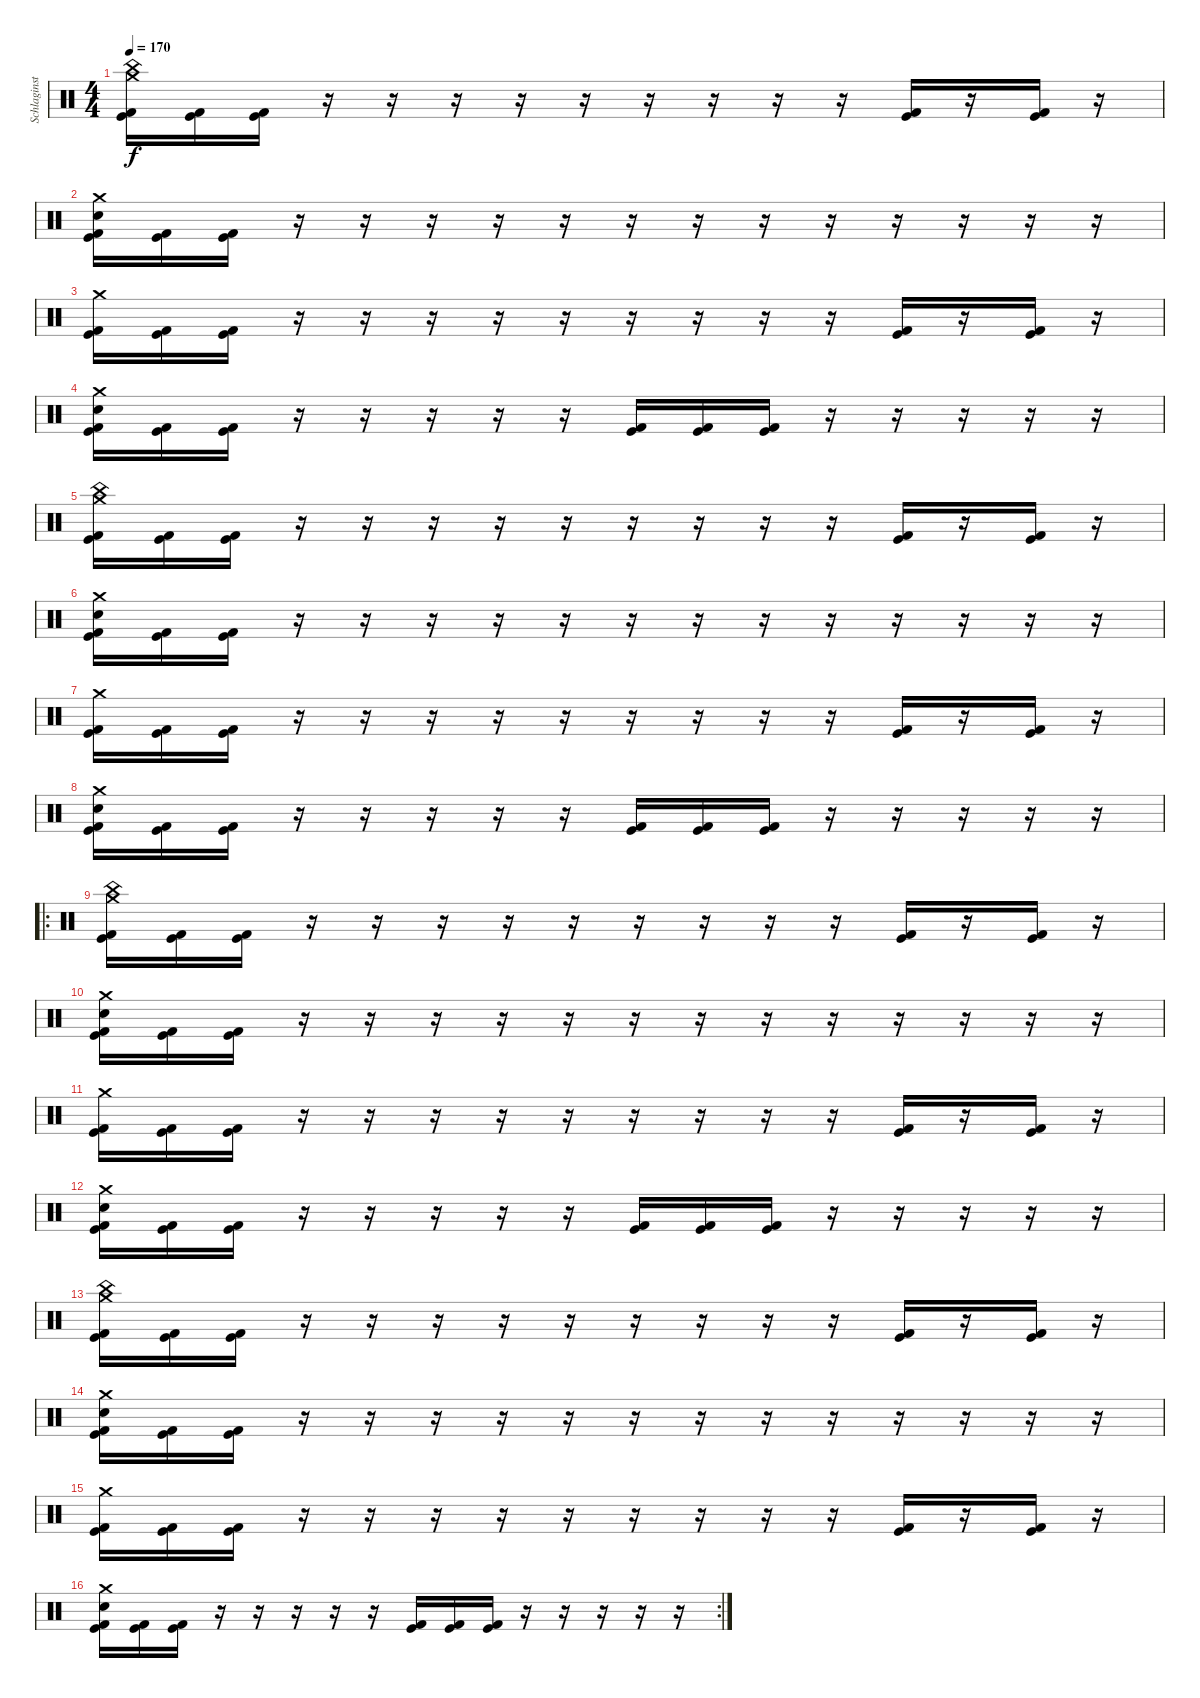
\track ("Schlaginstrumente - Auswahl" "Schlaginst") {instrument percussion}
\staff {score}
\articulation defaults
\ts (4 4)
\tempo 170
\clef neutral
\ks c
("Crash medium (hit)" "China (hit)" "Kick (hit)" "Kick (hit) 2").16{dy f} ("Kick (hit)" "Kick (hit) 2").16 ("Kick (hit)" "Kick (hit) 2").16 r.16 r.16 r.16 r.16 r.16 r.16 r.16 r.16 r.16 ("Kick (hit)" "Kick (hit) 2").16 r.16 ("Kick (hit)" "Kick (hit) 2").16 r.16 |
("Crash medium (hit)" "Electric Snare (hit)" "Kick (hit)" "Kick (hit) 2").16 ("Kick (hit)" "Kick (hit) 2").16 ("Kick (hit)" "Kick (hit) 2").16 r.16 r.16 r.16 r.16 r.16 r.16 r.16 r.16 r.16 r.16 r.16 r.16 r.16 |
("Crash medium (hit)" "Kick (hit)" "Kick (hit) 2").16 ("Kick (hit)" "Kick (hit) 2").16 ("Kick (hit)" "Kick (hit) 2").16 r.16 r.16 r.16 r.16 r.16 r.16 r.16 r.16 r.16 ("Kick (hit)" "Kick (hit) 2").16 r.16 ("Kick (hit)" "Kick (hit) 2").16 r.16 |
("Crash medium (hit)" "Electric Snare (hit)" "Kick (hit)" "Kick (hit) 2").16 ("Kick (hit)" "Kick (hit) 2").16 ("Kick (hit)" "Kick (hit) 2").16 r.16 r.16 r.16 r.16 r.16 ("Kick (hit)" "Kick (hit) 2").16 ("Kick (hit)" "Kick (hit) 2").16 ("Kick (hit)" "Kick (hit) 2").16 r.16 r.16 r.16 r.16 r.16 |
("Crash medium (hit)" "China (hit)" "Kick (hit)" "Kick (hit) 2").16 ("Kick (hit)" "Kick (hit) 2").16 ("Kick (hit)" "Kick (hit) 2").16 r.16 r.16 r.16 r.16 r.16 r.16 r.16 r.16 r.16 ("Kick (hit)" "Kick (hit) 2").16 r.16 ("Kick (hit)" "Kick (hit) 2").16 r.16 |
("Crash medium (hit)" "Electric Snare (hit)" "Kick (hit)" "Kick (hit) 2").16 ("Kick (hit)" "Kick (hit) 2").16 ("Kick (hit)" "Kick (hit) 2").16 r.16 r.16 r.16 r.16 r.16 r.16 r.16 r.16 r.16 r.16 r.16 r.16 r.16 |
("Crash medium (hit)" "Kick (hit)" "Kick (hit) 2").16 ("Kick (hit)" "Kick (hit) 2").16 ("Kick (hit)" "Kick (hit) 2").16 r.16 r.16 r.16 r.16 r.16 r.16 r.16 r.16 r.16 ("Kick (hit)" "Kick (hit) 2").16 r.16 ("Kick (hit)" "Kick (hit) 2").16 r.16 |
("Crash medium (hit)" "Electric Snare (hit)" "Kick (hit)" "Kick (hit) 2").16 ("Kick (hit)" "Kick (hit) 2").16 ("Kick (hit)" "Kick (hit) 2").16 r.16 r.16 r.16 r.16 r.16 ("Kick (hit)" "Kick (hit) 2").16 ("Kick (hit)" "Kick (hit) 2").16 ("Kick (hit)" "Kick (hit) 2").16 r.16 r.16 r.16 r.16 r.16 |
\ro
("Crash medium (hit)" "China (hit)" "Kick (hit)" "Kick (hit) 2").16 ("Kick (hit)" "Kick (hit) 2").16 ("Kick (hit)" "Kick (hit) 2").16 r.16 r.16 r.16 r.16 r.16 r.16 r.16 r.16 r.16 ("Kick (hit)" "Kick (hit) 2").16 r.16 ("Kick (hit)" "Kick (hit) 2").16 r.16 |
("Crash medium (hit)" "Electric Snare (hit)" "Kick (hit)" "Kick (hit) 2").16 ("Kick (hit)" "Kick (hit) 2").16 ("Kick (hit)" "Kick (hit) 2").16 r.16 r.16 r.16 r.16 r.16 r.16 r.16 r.16 r.16 r.16 r.16 r.16 r.16 |
("Crash medium (hit)" "Kick (hit)" "Kick (hit) 2").16 ("Kick (hit)" "Kick (hit) 2").16 ("Kick (hit)" "Kick (hit) 2").16 r.16 r.16 r.16 r.16 r.16 r.16 r.16 r.16 r.16 ("Kick (hit)" "Kick (hit) 2").16 r.16 ("Kick (hit)" "Kick (hit) 2").16 r.16 |
("Crash medium (hit)" "Electric Snare (hit)" "Kick (hit)" "Kick (hit) 2").16 ("Kick (hit)" "Kick (hit) 2").16 ("Kick (hit)" "Kick (hit) 2").16 r.16 r.16 r.16 r.16 r.16 ("Kick (hit)" "Kick (hit) 2").16 ("Kick (hit)" "Kick (hit) 2").16 ("Kick (hit)" "Kick (hit) 2").16 r.16 r.16 r.16 r.16 r.16 |
("Crash medium (hit)" "China (hit)" "Kick (hit)" "Kick (hit) 2").16 ("Kick (hit)" "Kick (hit) 2").16 ("Kick (hit)" "Kick (hit) 2").16 r.16 r.16 r.16 r.16 r.16 r.16 r.16 r.16 r.16 ("Kick (hit)" "Kick (hit) 2").16 r.16 ("Kick (hit)" "Kick (hit) 2").16 r.16 |
("Crash medium (hit)" "Electric Snare (hit)" "Kick (hit)" "Kick (hit) 2").16 ("Kick (hit)" "Kick (hit) 2").16 ("Kick (hit)" "Kick (hit) 2").16 r.16 r.16 r.16 r.16 r.16 r.16 r.16 r.16 r.16 r.16 r.16 r.16 r.16 |
("Crash medium (hit)" "Kick (hit)" "Kick (hit) 2").16 ("Kick (hit)" "Kick (hit) 2").16 ("Kick (hit)" "Kick (hit) 2").16 r.16 r.16 r.16 r.16 r.16 r.16 r.16 r.16 r.16 ("Kick (hit)" "Kick (hit) 2").16 r.16 ("Kick (hit)" "Kick (hit) 2").16 r.16 |
\rc 2
("Crash medium (hit)" "Electric Snare (hit)" "Kick (hit)" "Kick (hit) 2").16 ("Kick (hit)" "Kick (hit) 2").16 ("Kick (hit)" "Kick (hit) 2").16 r.16 r.16 r.16 r.16 r.16 ("Kick (hit)" "Kick (hit) 2").16 ("Kick (hit)" "Kick (hit) 2").16 ("Kick (hit)" "Kick (hit) 2").16 r.16 r.16 r.16 r.16 r.16
